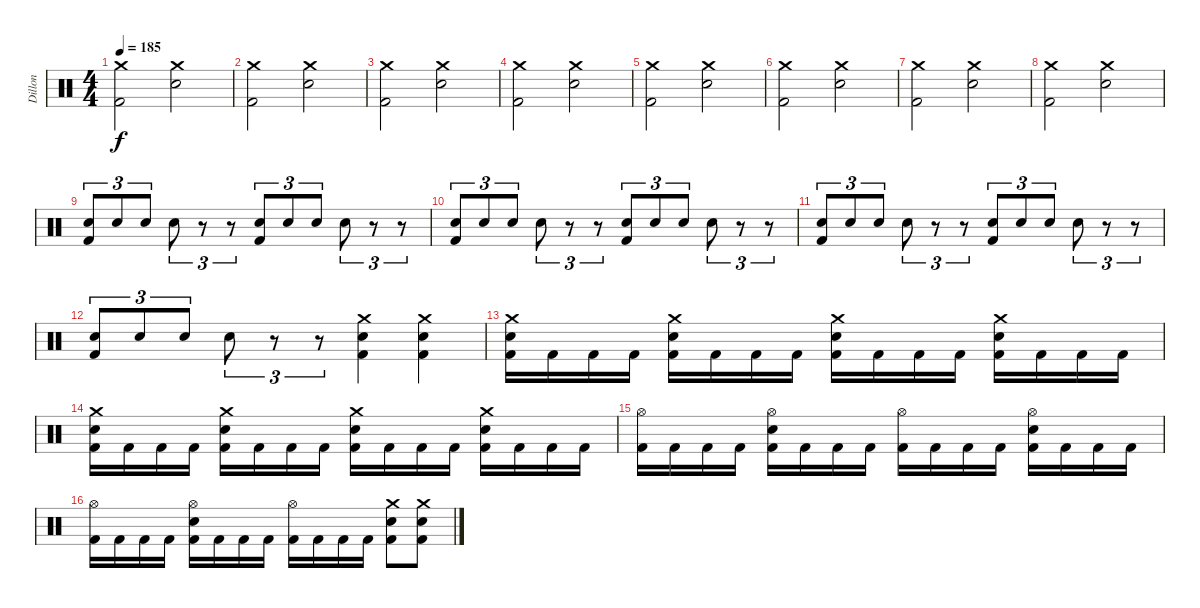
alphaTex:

\track ("Dillon" "Dillon") {instrument percussion}
\staff {score}
\articulation defaults
\ts (4 4)
\tempo 185
\clef neutral
\ks c
("Crash medium (hit)" "Kick (hit) 2").2{dy f} ("Crash medium (hit)" "Electric Snare (hit)").2 |
("Crash medium (hit)" "Kick (hit) 2").2 ("Crash medium (hit)" "Electric Snare (hit)").2 |
("Crash medium (hit)" "Kick (hit) 2").2 ("Crash medium (hit)" "Electric Snare (hit)").2 |
("Crash medium (hit)" "Kick (hit) 2").2 ("Crash medium (hit)" "Electric Snare (hit)").2 |
("Crash medium (hit)" "Kick (hit) 2").2 ("Crash medium (hit)" "Electric Snare (hit)").2 |
("Crash medium (hit)" "Kick (hit) 2").2 ("Crash medium (hit)" "Electric Snare (hit)").2 |
("Crash medium (hit)" "Kick (hit) 2").2 ("Crash medium (hit)" "Electric Snare (hit)").2 |
("Crash medium (hit)" "Kick (hit) 2").2 ("Crash medium (hit)" "Electric Snare (hit)").2 |
("Electric Snare (hit)" "Kick (hit) 2").8{tu (3 2)} "Electric Snare (hit)".8{tu (3 2)} "Electric Snare (hit)".8{tu (3 2)} "Electric Snare (hit)".8{tu (3 2)} r.8{tu (3 2)} r.8{tu (3 2)} ("Electric Snare (hit)" "Kick (hit) 2").8{tu (3 2)} "Electric Snare (hit)".8{tu (3 2)} "Electric Snare (hit)".8{tu (3 2)} "Electric Snare (hit)".8{tu (3 2)} r.8{tu (3 2)} r.8{tu (3 2)} |
("Electric Snare (hit)" "Kick (hit) 2").8{tu (3 2)} "Electric Snare (hit)".8{tu (3 2)} "Electric Snare (hit)".8{tu (3 2)} "Electric Snare (hit)".8{tu (3 2)} r.8{tu (3 2)} r.8{tu (3 2)} ("Electric Snare (hit)" "Kick (hit) 2").8{tu (3 2)} "Electric Snare (hit)".8{tu (3 2)} "Electric Snare (hit)".8{tu (3 2)} "Electric Snare (hit)".8{tu (3 2)} r.8{tu (3 2)} r.8{tu (3 2)} |
("Electric Snare (hit)" "Kick (hit) 2").8{tu (3 2)} "Electric Snare (hit)".8{tu (3 2)} "Electric Snare (hit)".8{tu (3 2)} "Electric Snare (hit)".8{tu (3 2)} r.8{tu (3 2)} r.8{tu (3 2)} ("Electric Snare (hit)" "Kick (hit) 2").8{tu (3 2)} "Electric Snare (hit)".8{tu (3 2)} "Electric Snare (hit)".8{tu (3 2)} "Electric Snare (hit)".8{tu (3 2)} r.8{tu (3 2)} r.8{tu (3 2)} |
("Electric Snare (hit)" "Kick (hit) 2").8{tu (3 2)} "Electric Snare (hit)".8{tu (3 2)} "Electric Snare (hit)".8{tu (3 2)} "Electric Snare (hit)".8{tu (3 2)} r.8{tu (3 2)} r.8{tu (3 2)} ("Crash medium (hit)" "Electric Snare (hit)" "Kick (hit) 2").4 ("Crash medium (hit)" "Electric Snare (hit)" "Kick (hit) 2").4 |
("Crash medium (hit)" "Electric Snare (hit)" "Kick (hit) 2").16 "Kick (hit) 2".16 "Kick (hit) 2".16 "Kick (hit) 2".16 ("Crash medium (hit)" "Electric Snare (hit)" "Kick (hit) 2").16 "Kick (hit) 2".16 "Kick (hit) 2".16 "Kick (hit) 2".16 ("Crash medium (hit)" "Electric Snare (hit)" "Kick (hit) 2").16 "Kick (hit) 2".16 "Kick (hit) 2".16 "Kick (hit) 2".16 ("Crash medium (hit)" "Electric Snare (hit)" "Kick (hit) 2").16 "Kick (hit) 2".16 "Kick (hit) 2".16 "Kick (hit) 2".16 |
("Crash medium (hit)" "Electric Snare (hit)" "Kick (hit) 2").16 "Kick (hit) 2".16 "Kick (hit) 2".16 "Kick (hit) 2".16 ("Crash medium (hit)" "Electric Snare (hit)" "Kick (hit) 2").16 "Kick (hit) 2".16 "Kick (hit) 2".16 "Kick (hit) 2".16 ("Crash medium (hit)" "Electric Snare (hit)" "Kick (hit) 2").16 "Kick (hit) 2".16 "Kick (hit) 2".16 "Kick (hit) 2".16 ("Crash medium (hit)" "Electric Snare (hit)" "Kick (hit) 2").16 "Kick (hit) 2".16 "Kick (hit) 2".16 "Kick (hit) 2".16 |
("Hi-Hat (open)" "Kick (hit) 2").16 "Kick (hit) 2".16 "Kick (hit) 2".16 "Kick (hit) 2".16 ("Hi-Hat (open)" "Electric Snare (hit)" "Kick (hit) 2").16 "Kick (hit) 2".16 "Kick (hit) 2".16 "Kick (hit) 2".16 ("Hi-Hat (open)" "Kick (hit) 2").16 "Kick (hit) 2".16 "Kick (hit) 2".16 "Kick (hit) 2".16 ("Hi-Hat (open)" "Electric Snare (hit)" "Kick (hit) 2").16 "Kick (hit) 2".16 "Kick (hit) 2".16 "Kick (hit) 2".16 |
("Hi-Hat (open)" "Kick (hit) 2").16 "Kick (hit) 2".16 "Kick (hit) 2".16 "Kick (hit) 2".16 ("Hi-Hat (open)" "Electric Snare (hit)" "Kick (hit) 2").16 "Kick (hit) 2".16 "Kick (hit) 2".16 "Kick (hit) 2".16 ("Hi-Hat (open)" "Kick (hit) 2").16 "Kick (hit) 2".16 "Kick (hit) 2".16 "Kick (hit) 2".16 ("Crash medium (hit)" "Electric Snare (hit)" "Kick (hit) 2").8 ("Crash medium (hit)" "Electric Snare (hit)" "Kick (hit) 2").8
